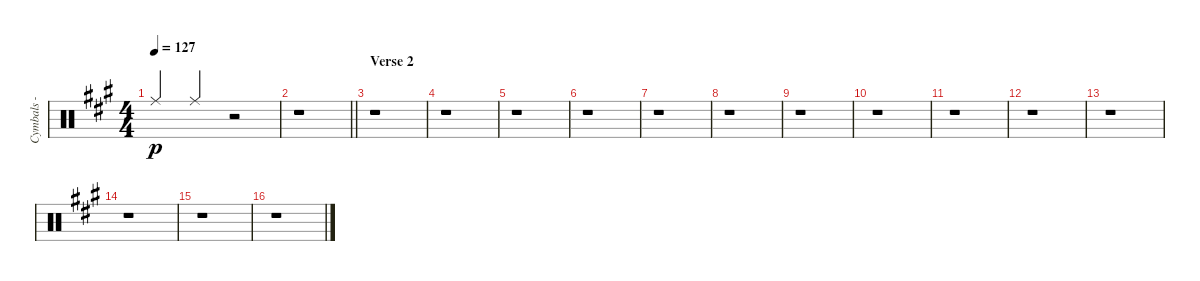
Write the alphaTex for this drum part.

\track ("Cymbals - ride" "Cymbals - ") {instrument percussion}
\staff {score}
\articulation defaults
\ts (4 4)
\tempo 127
\clef neutral
\ks a "Ride (middle)".4{dy p beam Up} "Ride (middle)".4{beam Up}
r.2 |
\barLineRight lightlight
r.1 |
\section ("" "Verse 2")
r.1 |
r.1 |
r.1 |
r.1 |
r.1 |
r.1 |
r.1 |
r.1 |
r.1 |
r.1 |
r.1 |
r.1 |
r.1 |
r.1
